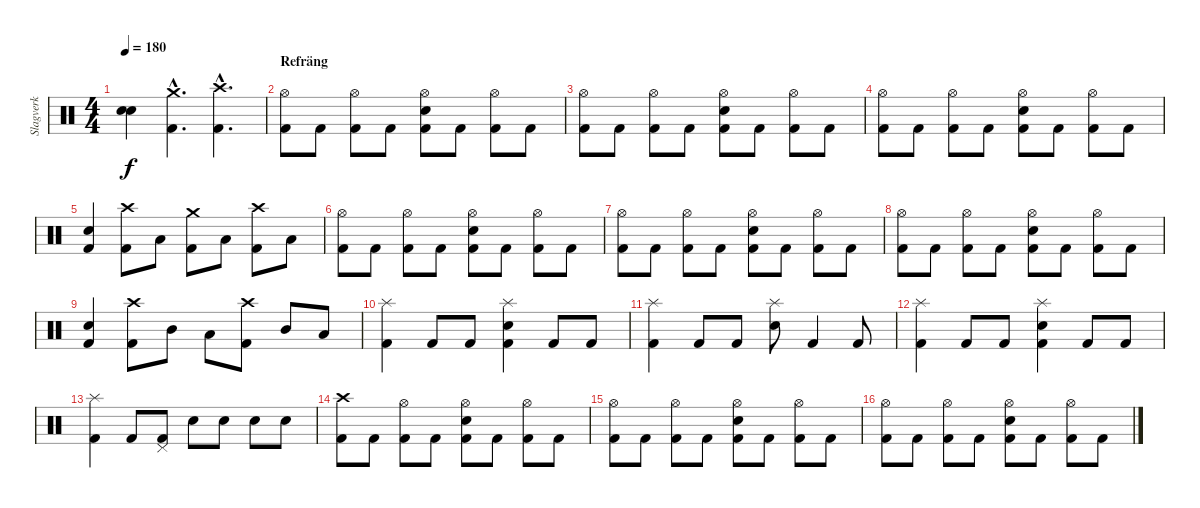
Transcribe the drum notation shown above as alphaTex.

\track ("Slagverk" "Slagverk") {instrument percussion}
\staff {score}
\articulation defaults
\ts (4 4)
\tempo 180
\clef neutral
\ks c
("Snare (hit)"{t} "Snare (hit)"{t}).4{dy f} ("Kick (hit) 2"{hac} "Crash medium (hit)"{hac}).4{d} ("Kick (hit) 2"{hac} "Crash high (hit)"{hac}).4{d} |
\section ("" "Refräng")
("Kick (hit) 2" "Hi-Hat (open)").8 "Kick (hit) 2".8 ("Kick (hit) 2" "Hi-Hat (open)").8 "Kick (hit) 2".8 ("Kick (hit) 2" "Snare (hit) 2" "Hi-Hat (open)").8 "Kick (hit) 2".8 ("Kick (hit) 2" "Hi-Hat (open)").8 "Kick (hit) 2".8 |
("Kick (hit) 2" "Hi-Hat (open)").8 "Kick (hit) 2".8 ("Kick (hit) 2" "Hi-Hat (open)").8 "Kick (hit) 2".8 ("Kick (hit) 2" "Snare (hit) 2" "Hi-Hat (open)").8 "Kick (hit) 2".8 ("Kick (hit) 2" "Hi-Hat (open)").8 "Kick (hit) 2".8 |
("Kick (hit) 2" "Hi-Hat (open)").8 "Kick (hit) 2".8 ("Kick (hit) 2" "Hi-Hat (open)").8 "Kick (hit) 2".8 ("Kick (hit) 2" "Snare (hit) 2" "Hi-Hat (open)").8 "Kick (hit) 2".8 ("Kick (hit) 2" "Hi-Hat (open)").8 "Kick (hit) 2".8 |
("Kick (hit) 2" "Snare (hit) 2").4 ("Kick (hit) 2" "Crash high (hit)").8 "Low Floor Tom (hit)".8 ("Kick (hit) 2" "Crash medium (hit)").8 "Low Floor Tom (hit)".8 ("Kick (hit) 2" "Crash high (hit)").8 "Low Floor Tom (hit)".8 |
("Kick (hit) 2" "Hi-Hat (open)").8 "Kick (hit) 2".8 ("Kick (hit) 2" "Hi-Hat (open)").8 "Kick (hit) 2".8 ("Kick (hit) 2" "Snare (hit) 2" "Hi-Hat (open)").8 "Kick (hit) 2".8 ("Kick (hit) 2" "Hi-Hat (open)").8 "Kick (hit) 2".8 |
("Kick (hit) 2" "Hi-Hat (open)").8 "Kick (hit) 2".8 ("Kick (hit) 2" "Hi-Hat (open)").8 "Kick (hit) 2".8 ("Kick (hit) 2" "Snare (hit) 2" "Hi-Hat (open)").8 "Kick (hit) 2".8 ("Kick (hit) 2" "Hi-Hat (open)").8 "Kick (hit) 2".8 |
("Kick (hit) 2" "Hi-Hat (open)").8 "Kick (hit) 2".8 ("Kick (hit) 2" "Hi-Hat (open)").8 "Kick (hit) 2".8 ("Kick (hit) 2" "Snare (hit) 2" "Hi-Hat (open)").8 "Kick (hit) 2".8 ("Kick (hit) 2" "Hi-Hat (open)").8 "Kick (hit) 2".8 |
("Kick (hit) 2" "Snare (hit) 2").4 ("Kick (hit) 2" "Crash high (hit)").8 "Mid Tom (hit)".8 "Low Tom (hit)".8 ("Kick (hit) 2" "Crash high (hit)").8 "Mid Tom (hit)".8 "Low Tom (hit)".8 |
("Kick (hit) 2" "Splash (hit)").4 "Kick (hit) 2".8 "Kick (hit) 2".8 ("Kick (hit) 2" "Snare (hit) 2" "Splash (hit)").4 "Kick (hit) 2".8 "Kick (hit) 2".8 |
("Kick (hit) 2" "Splash (hit)").4 "Kick (hit) 2".8 "Kick (hit) 2".8 ("Snare (hit) 2" "Splash (hit)").8 "Kick (hit) 2".4 "Kick (hit) 2".8 |
("Kick (hit) 2" "Splash (hit)").4 "Kick (hit) 2".8 "Kick (hit) 2".8 ("Kick (hit) 2" "Snare (hit) 2" "Splash (hit)").4 "Kick (hit) 2".8 "Kick (hit) 2".8 |
("Kick (hit) 2" "Splash (hit)").4 "Kick (hit) 2".8 ("Kick (hit) 2" "Pedal Hi-Hat (hit)").8 "Snare (hit) 2".8 "Snare (hit) 2".8 "Snare (hit) 2".8 "Snare (hit) 2".8 |
("Kick (hit) 2" "Crash high (hit)").8 "Kick (hit) 2".8 ("Kick (hit) 2" "Hi-Hat (open)").8 "Kick (hit) 2".8 ("Kick (hit) 2" "Snare (hit) 2" "Hi-Hat (open)").8 "Kick (hit) 2".8 ("Kick (hit) 2" "Hi-Hat (open)").8 "Kick (hit) 2".8 |
("Kick (hit) 2" "Hi-Hat (open)").8 "Kick (hit) 2".8 ("Kick (hit) 2" "Hi-Hat (open)").8 "Kick (hit) 2".8 ("Kick (hit) 2" "Snare (hit) 2" "Hi-Hat (open)").8 "Kick (hit) 2".8 ("Kick (hit) 2" "Hi-Hat (open)").8 "Kick (hit) 2".8 |
("Kick (hit) 2" "Hi-Hat (open)").8 "Kick (hit) 2".8 ("Kick (hit) 2" "Hi-Hat (open)").8 "Kick (hit) 2".8 ("Kick (hit) 2" "Snare (hit) 2" "Hi-Hat (open)").8 "Kick (hit) 2".8 ("Kick (hit) 2" "Hi-Hat (open)").8 "Kick (hit) 2".8
